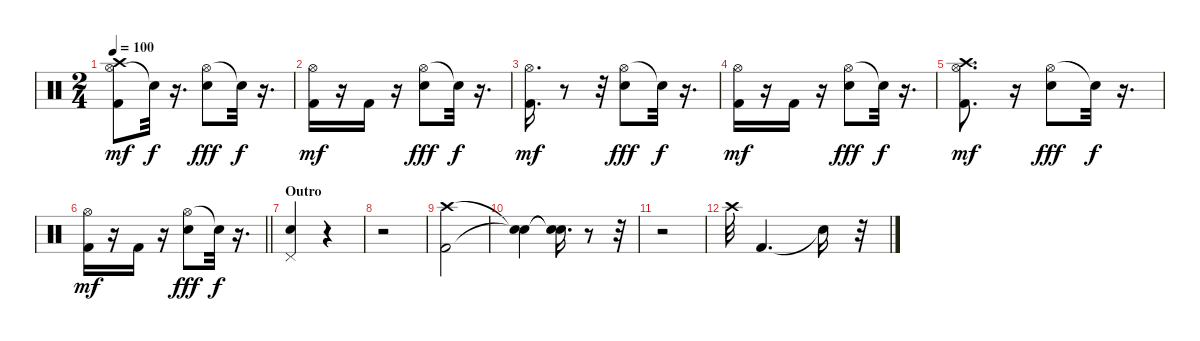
\track "" {instrument percussion}
\staff {score}
\articulation defaults
\ts (2 4)
\tempo 100
\clef neutral
\ks c
("Hi-Hat (open)" "Crash high (hit)" "Kick (hit) 2").8{dy mf} "Snare (hit)"{t}.32{dy f} r.16{d} ("Hi-Hat (open)" "Snare (hit) 2").8{dy fff} "Snare (hit)"{t}.32{dy f} r.16{d} |
("Hi-Hat (open)" "Kick (hit) 2").16{dy mf} r.16 "Kick (hit) 2".16 r.16 ("Hi-Hat (open)" "Snare (hit) 2").8{dy fff} "Snare (hit)"{t}.32{dy f} r.16{d} |
("Hi-Hat (open)" "Kick (hit) 2").16{d dy mf} r.8 r.32 ("Hi-Hat (open)" "Snare (hit) 2").8{dy fff} "Snare (hit)"{t}.32{dy f} r.16{d} |
("Hi-Hat (open)" "Kick (hit) 2").16{dy mf} r.16 "Kick (hit) 2".16 r.16 ("Hi-Hat (open)" "Snare (hit) 2").8{dy fff} "Snare (hit)"{t}.32{dy f} r.16{d} |
("Hi-Hat (open)" "Crash high (hit)" "Kick (hit) 2").8{d dy mf} r.16 ("Hi-Hat (open)" "Snare (hit) 2").8{dy fff} "Snare (hit)"{t}.32{dy f} r.16{d} |
\barLineRight lightlight
("Hi-Hat (open)" "Kick (hit) 2").16{dy mf} r.16 "Kick (hit) 2".16 r.16 ("Hi-Hat (open)" "Snare (hit) 2").8{dy fff} "Snare (hit)"{t}.32{dy f} r.16{d} |
\section ("" "Outro")
("Pedal Hi-Hat (hit)" "Snare (hit) 2").4 r.4 |
r.2 |
("Crash high (hit)" "Kick (hit) 2").2 |
("Snare (hit)"{t} "Snare (hit)"{t}).4 ("Snare (hit)"{t} "Snare (hit)"{t}).16{d} r.8 r.32 |
r.2 |
"Crash high (hit)".32 "Kick (hit) 2".4{d} "Snare (hit)"{t}.16 r.32
